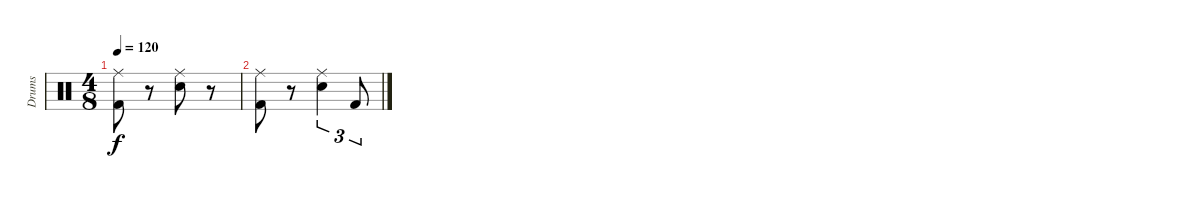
\track ("Drums" "Drums") {instrument percussion}
\staff {score}
\articulation defaults
\ts (4 8)
\tempo 120
\clef neutral
\ks c
("Ride (middle)" "Kick (hit) 2").8{dy f volume 1} r.8 ("Ride (middle)" "Electric Snare (hit)").8 r.8 |
("Ride (middle)" "Kick (hit) 2").8 r.8 ("Ride (middle)" "Electric Snare (hit)").4{tu (3 2)} "Kick (hit) 2".8{tu (3 2)}
